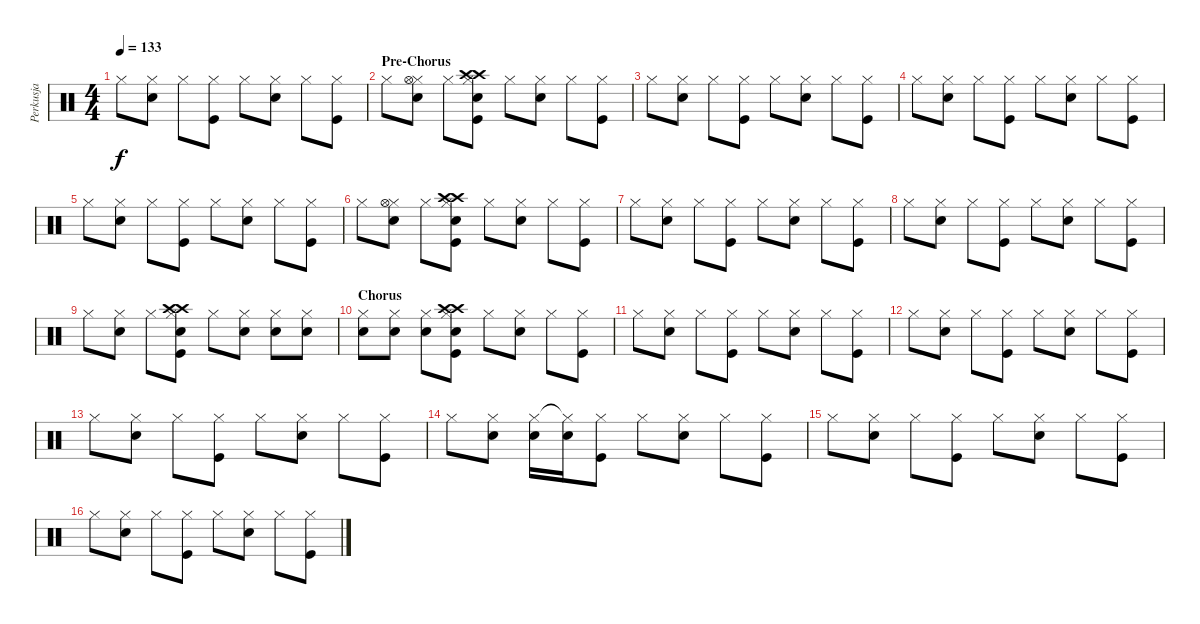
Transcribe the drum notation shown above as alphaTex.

\track ("Perkusja" "Perkusja") {instrument percussion}
\staff {score}
\articulation defaults
\ts (4 4)
\tempo 133
\clef neutral
\ks c "Hi-Hat (closed)".8{dy f}
("Hi-Hat (closed)" "Snare (hit) 2").8 "Hi-Hat (closed)".8 ("Hi-Hat (closed)" "Kick (hit)").8 "Hi-Hat (closed)".8 ("Hi-Hat (closed)" "Snare (hit) 2").8 "Hi-Hat (closed)".8 ("Hi-Hat (closed)" "Kick (hit)").8 |
\section ("" "Pre-Chorus")
"Hi-Hat (closed)".8 ("Hi-Hat (closed)" "Snare (hit) 2" "Hi-Hat (open)").8 "Hi-Hat (closed)".8 ("Hi-Hat (closed)" "Kick (hit)" "Electric Snare (hit)" "Crash high (hit)" "Crash high (hit)").8 "Hi-Hat (closed)".8 ("Hi-Hat (closed)" "Snare (hit) 2").8 "Hi-Hat (closed)".8 ("Hi-Hat (closed)" "Kick (hit)").8 |
"Hi-Hat (closed)".8 ("Hi-Hat (closed)" "Snare (hit) 2").8 "Hi-Hat (closed)".8 ("Hi-Hat (closed)" "Kick (hit)").8 "Hi-Hat (closed)".8 ("Hi-Hat (closed)" "Snare (hit) 2").8 "Hi-Hat (closed)".8 ("Hi-Hat (closed)" "Kick (hit)").8 |
"Hi-Hat (closed)".8 ("Hi-Hat (closed)" "Snare (hit) 2").8 "Hi-Hat (closed)".8 ("Hi-Hat (closed)" "Kick (hit)").8 "Hi-Hat (closed)".8 ("Hi-Hat (closed)" "Snare (hit) 2").8 "Hi-Hat (closed)".8 ("Hi-Hat (closed)" "Kick (hit)").8 |
"Hi-Hat (closed)".8 ("Hi-Hat (closed)" "Snare (hit) 2").8 "Hi-Hat (closed)".8 ("Hi-Hat (closed)" "Kick (hit)").8 "Hi-Hat (closed)".8 ("Hi-Hat (closed)" "Snare (hit) 2").8 "Hi-Hat (closed)".8 ("Hi-Hat (closed)" "Kick (hit)").8 |
"Hi-Hat (closed)".8 ("Hi-Hat (closed)" "Snare (hit) 2" "Hi-Hat (open)").8 "Hi-Hat (closed)".8 ("Hi-Hat (closed)" "Kick (hit)" "Electric Snare (hit)" "Crash high (hit)" "Crash high (hit)").8 "Hi-Hat (closed)".8 ("Hi-Hat (closed)" "Snare (hit) 2").8 "Hi-Hat (closed)".8 ("Hi-Hat (closed)" "Kick (hit)").8 |
"Hi-Hat (closed)".8 ("Hi-Hat (closed)" "Snare (hit) 2").8 "Hi-Hat (closed)".8 ("Hi-Hat (closed)" "Kick (hit)").8 "Hi-Hat (closed)".8 ("Hi-Hat (closed)" "Snare (hit) 2").8 "Hi-Hat (closed)".8 ("Hi-Hat (closed)" "Kick (hit)").8 |
"Hi-Hat (closed)".8 ("Hi-Hat (closed)" "Snare (hit) 2").8 "Hi-Hat (closed)".8 ("Hi-Hat (closed)" "Kick (hit)").8 "Hi-Hat (closed)".8 ("Hi-Hat (closed)" "Snare (hit) 2").8 "Hi-Hat (closed)".8 ("Hi-Hat (closed)" "Kick (hit)").8 |
"Hi-Hat (closed)".8 ("Hi-Hat (closed)" "Snare (hit) 2").8 "Hi-Hat (closed)".8 ("Hi-Hat (closed)" "Kick (hit)" "Electric Snare (hit)" "Crash high (hit)" "Crash high (hit)").8 "Hi-Hat (closed)".8 ("Hi-Hat (closed)" "Snare (hit) 2").8 ("Hi-Hat (closed)" "Snare (hit) 2").8 ("Hi-Hat (closed)" "Snare (hit) 2").8 |
\section ("" "Chorus")
("Hi-Hat (closed)" "Snare (hit) 2").8 ("Hi-Hat (closed)" "Snare (hit) 2").8 ("Hi-Hat (closed)" "Snare (hit) 2").8 ("Hi-Hat (closed)" "Kick (hit)" "Electric Snare (hit)" "Crash high (hit)" "Crash high (hit)").8 "Hi-Hat (closed)".8 ("Hi-Hat (closed)" "Snare (hit) 2").8 "Hi-Hat (closed)".8 ("Hi-Hat (closed)" "Kick (hit)").8 |
"Hi-Hat (closed)".8 ("Hi-Hat (closed)" "Snare (hit) 2").8 "Hi-Hat (closed)".8 ("Hi-Hat (closed)" "Kick (hit)").8 "Hi-Hat (closed)".8 ("Hi-Hat (closed)" "Snare (hit) 2").8 "Hi-Hat (closed)".8 ("Hi-Hat (closed)" "Kick (hit)").8 |
"Hi-Hat (closed)".8 ("Hi-Hat (closed)" "Snare (hit) 2").8 "Hi-Hat (closed)".8 ("Hi-Hat (closed)" "Kick (hit)").8 "Hi-Hat (closed)".8 ("Hi-Hat (closed)" "Snare (hit) 2").8 "Hi-Hat (closed)".8 ("Hi-Hat (closed)" "Kick (hit)").8 |
"Hi-Hat (closed)".8 ("Hi-Hat (closed)" "Snare (hit) 2").8 "Hi-Hat (closed)".8 ("Hi-Hat (closed)" "Kick (hit)").8 "Hi-Hat (closed)".8 ("Hi-Hat (closed)" "Snare (hit) 2").8 "Hi-Hat (closed)".8 ("Hi-Hat (closed)" "Kick (hit)").8 |
"Hi-Hat (closed)".8 ("Hi-Hat (closed)" "Snare (hit) 2").8 ("Hi-Hat (closed)" "Snare (hit) 2").16 ("Hi-Hat (closed)"{t} "Snare (hit) 2").16 ("Hi-Hat (closed)" "Kick (hit)").8 "Hi-Hat (closed)".8 ("Hi-Hat (closed)" "Snare (hit) 2").8 "Hi-Hat (closed)".8 ("Hi-Hat (closed)" "Kick (hit)").8 |
"Hi-Hat (closed)".8 ("Hi-Hat (closed)" "Snare (hit) 2").8 "Hi-Hat (closed)".8 ("Hi-Hat (closed)" "Kick (hit)").8 "Hi-Hat (closed)".8 ("Hi-Hat (closed)" "Snare (hit) 2").8 "Hi-Hat (closed)".8 ("Hi-Hat (closed)" "Kick (hit)").8 |
"Hi-Hat (closed)".8 ("Hi-Hat (closed)" "Snare (hit) 2").8 "Hi-Hat (closed)".8 ("Hi-Hat (closed)" "Kick (hit)").8 "Hi-Hat (closed)".8 ("Hi-Hat (closed)" "Snare (hit) 2").8 "Hi-Hat (closed)".8 ("Hi-Hat (closed)" "Kick (hit)").8
